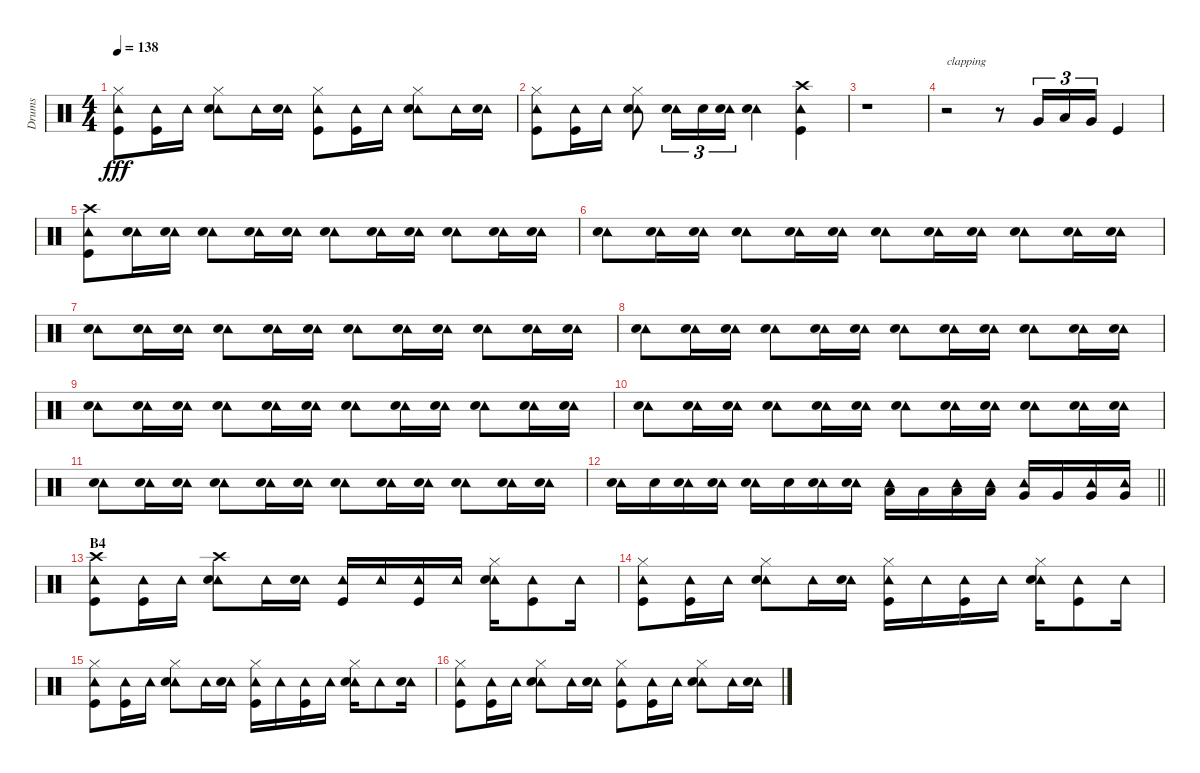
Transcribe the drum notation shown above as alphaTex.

\track ("Drums" "Drums") {instrument percussion}
\staff {score}
\articulation defaults
\ts (4 4)
\tempo 138
\clef neutral
\ks c
("Hi-Hat (closed)" "Tambourine (hit)" "Kick (hit)").8{dy fff} ("Tambourine (hit)" "Kick (hit)").16 "Tambourine (hit)".16 ("Hi-Hat (closed)" "Tambourine (hit)" "Snare (hit) 2").8 "Tambourine (hit)".16 ("Tambourine (hit)" "Snare (hit) 2").16 ("Hi-Hat (closed)" "Tambourine (hit)" "Kick (hit)").8 ("Tambourine (hit)" "Kick (hit)").16 "Tambourine (hit)".16 ("Hi-Hat (closed)" "Tambourine (hit)" "Snare (hit) 2").8 "Tambourine (hit)".16 ("Tambourine (hit)" "Snare (hit) 2").16 |
("Hi-Hat (closed)" "Tambourine (hit)" "Kick (hit)").8 ("Tambourine (hit)" "Kick (hit)").16 "Tambourine (hit)".16 ("Hi-Hat (closed)" "Tambourine (hit)" "Snare (hit) 2").8 ("Tambourine (hit)" "Snare (hit) 2").16{tu (3 2)} "Snare (hit) 2".16{tu (3 2)} ("Tambourine (hit)" "Snare (hit) 2").16{tu (3 2)} ("Tambourine (hit)" "Snare (hit) 2").4 ("Crash high (hit)" "Tambourine (hit)" "Kick (hit)").4 |
r.1 |
r.2{txt "clapping"} r.8 "Very Low Tom (hit)".16{tu (3 2)} "Low Tom (hit)".16{tu (3 2)} "Very Low Tom (hit)".16{tu (3 2)} "Kick (hit)".4 |
("Crash high (hit)" "Tambourine (hit)" "Kick (hit)").8 ("Tambourine (hit)" "Snare (hit) 2").16 ("Tambourine (hit)" "Snare (hit) 2").16 ("Tambourine (hit)" "Snare (hit) 2").8 ("Tambourine (hit)" "Snare (hit) 2").16 ("Tambourine (hit)" "Snare (hit) 2").16 ("Tambourine (hit)" "Snare (hit) 2").8 ("Tambourine (hit)" "Snare (hit) 2").16 ("Tambourine (hit)" "Snare (hit) 2").16 ("Tambourine (hit)" "Snare (hit) 2").8 ("Tambourine (hit)" "Snare (hit) 2").16 ("Tambourine (hit)" "Snare (hit) 2").16 |
("Tambourine (hit)" "Snare (hit) 2").8 ("Tambourine (hit)" "Snare (hit) 2").16 ("Tambourine (hit)" "Snare (hit) 2").16 ("Tambourine (hit)" "Snare (hit) 2").8 ("Tambourine (hit)" "Snare (hit) 2").16 ("Tambourine (hit)" "Snare (hit) 2").16 ("Tambourine (hit)" "Snare (hit) 2").8 ("Tambourine (hit)" "Snare (hit) 2").16 ("Tambourine (hit)" "Snare (hit) 2").16 ("Tambourine (hit)" "Snare (hit) 2").8 ("Tambourine (hit)" "Snare (hit) 2").16 ("Tambourine (hit)" "Snare (hit) 2").16 |
("Tambourine (hit)" "Snare (hit) 2").8 ("Tambourine (hit)" "Snare (hit) 2").16 ("Tambourine (hit)" "Snare (hit) 2").16 ("Tambourine (hit)" "Snare (hit) 2").8 ("Tambourine (hit)" "Snare (hit) 2").16 ("Tambourine (hit)" "Snare (hit) 2").16 ("Tambourine (hit)" "Snare (hit) 2").8 ("Tambourine (hit)" "Snare (hit) 2").16 ("Tambourine (hit)" "Snare (hit) 2").16 ("Tambourine (hit)" "Snare (hit) 2").8 ("Tambourine (hit)" "Snare (hit) 2").16 ("Tambourine (hit)" "Snare (hit) 2").16 |
("Tambourine (hit)" "Snare (hit) 2").8 ("Tambourine (hit)" "Snare (hit) 2").16 ("Tambourine (hit)" "Snare (hit) 2").16 ("Tambourine (hit)" "Snare (hit) 2").8 ("Tambourine (hit)" "Snare (hit) 2").16 ("Tambourine (hit)" "Snare (hit) 2").16 ("Tambourine (hit)" "Snare (hit) 2").8 ("Tambourine (hit)" "Snare (hit) 2").16 ("Tambourine (hit)" "Snare (hit) 2").16 ("Tambourine (hit)" "Snare (hit) 2").8 ("Tambourine (hit)" "Snare (hit) 2").16 ("Tambourine (hit)" "Snare (hit) 2").16 |
("Tambourine (hit)" "Snare (hit) 2").8 ("Tambourine (hit)" "Snare (hit) 2").16 ("Tambourine (hit)" "Snare (hit) 2").16 ("Tambourine (hit)" "Snare (hit) 2").8 ("Tambourine (hit)" "Snare (hit) 2").16 ("Tambourine (hit)" "Snare (hit) 2").16 ("Tambourine (hit)" "Snare (hit) 2").8 ("Tambourine (hit)" "Snare (hit) 2").16 ("Tambourine (hit)" "Snare (hit) 2").16 ("Tambourine (hit)" "Snare (hit) 2").8 ("Tambourine (hit)" "Snare (hit) 2").16 ("Tambourine (hit)" "Snare (hit) 2").16 |
("Tambourine (hit)" "Snare (hit) 2").8 ("Tambourine (hit)" "Snare (hit) 2").16 ("Tambourine (hit)" "Snare (hit) 2").16 ("Tambourine (hit)" "Snare (hit) 2").8 ("Tambourine (hit)" "Snare (hit) 2").16 ("Tambourine (hit)" "Snare (hit) 2").16 ("Tambourine (hit)" "Snare (hit) 2").8 ("Tambourine (hit)" "Snare (hit) 2").16 ("Tambourine (hit)" "Snare (hit) 2").16 ("Tambourine (hit)" "Snare (hit) 2").8 ("Tambourine (hit)" "Snare (hit) 2").16 ("Tambourine (hit)" "Snare (hit) 2").16 |
("Tambourine (hit)" "Snare (hit) 2").8 ("Tambourine (hit)" "Snare (hit) 2").16 ("Tambourine (hit)" "Snare (hit) 2").16 ("Tambourine (hit)" "Snare (hit) 2").8 ("Tambourine (hit)" "Snare (hit) 2").16 ("Tambourine (hit)" "Snare (hit) 2").16 ("Tambourine (hit)" "Snare (hit) 2").8 ("Tambourine (hit)" "Snare (hit) 2").16 ("Tambourine (hit)" "Snare (hit) 2").16 ("Tambourine (hit)" "Snare (hit) 2").8 ("Tambourine (hit)" "Snare (hit) 2").16 ("Tambourine (hit)" "Snare (hit) 2").16 |
\barLineRight lightlight
("Tambourine (hit)" "Snare (hit) 2").16 "Snare (hit) 2".16 ("Tambourine (hit)" "Snare (hit) 2").16 ("Tambourine (hit)" "Snare (hit) 2").16 ("Tambourine (hit)" "Snare (hit) 2").16 "Snare (hit) 2".16 ("Tambourine (hit)" "Snare (hit) 2").16 ("Tambourine (hit)" "Snare (hit) 2").16 ("Tambourine (hit)" "Low Tom (hit)").16 "Low Tom (hit)".16 ("Tambourine (hit)" "Low Tom (hit)").16 ("Tambourine (hit)" "Low Tom (hit)").16 ("Tambourine (hit)" "Very Low Tom (hit)").16 "Very Low Tom (hit)".16 ("Tambourine (hit)" "Very Low Tom (hit)").16 ("Tambourine (hit)" "Very Low Tom (hit)").16 |
\section ("" "B4")
("Crash high (hit)" "Tambourine (hit)" "Kick (hit)").8 ("Tambourine (hit)" "Kick (hit)").16 "Tambourine (hit)".16 ("Crash high (hit)" "Tambourine (hit)" "Snare (hit) 2").8 "Tambourine (hit)".16 ("Tambourine (hit)" "Snare (hit) 2").16 ("Tambourine (hit)" "Kick (hit)").16 "Tambourine (hit)".16 ("Tambourine (hit)" "Kick (hit)").16 "Tambourine (hit)".16 ("Hi-Hat (closed)" "Tambourine (hit)" "Snare (hit) 2").16 ("Tambourine (hit)" "Kick (hit)").8 "Tambourine (hit)".16 |
("Hi-Hat (closed)" "Tambourine (hit)" "Kick (hit)").8 ("Tambourine (hit)" "Kick (hit)").16 "Tambourine (hit)".16 ("Hi-Hat (closed)" "Tambourine (hit)" "Snare (hit) 2").8 "Tambourine (hit)".16 ("Tambourine (hit)" "Snare (hit) 2").16 ("Hi-Hat (closed)" "Tambourine (hit)" "Kick (hit)").16 "Tambourine (hit)".16 ("Tambourine (hit)" "Kick (hit)").16 "Tambourine (hit)".16 ("Hi-Hat (closed)" "Tambourine (hit)" "Snare (hit) 2").16 ("Tambourine (hit)" "Kick (hit)").8 "Tambourine (hit)".16 |
("Hi-Hat (closed)" "Tambourine (hit)" "Kick (hit)").8 ("Tambourine (hit)" "Kick (hit)").16 "Tambourine (hit)".16 ("Hi-Hat (closed)" "Tambourine (hit)" "Snare (hit) 2").8 "Tambourine (hit)".16 ("Tambourine (hit)" "Snare (hit) 2").16 ("Hi-Hat (closed)" "Tambourine (hit)" "Kick (hit)").16 "Tambourine (hit)".16 ("Tambourine (hit)" "Kick (hit)").16 "Tambourine (hit)".16 ("Hi-Hat (closed)" "Tambourine (hit)" "Snare (hit) 2").16 "Tambourine (hit)".8 ("Tambourine (hit)" "Snare (hit) 2").16 |
("Hi-Hat (closed)" "Tambourine (hit)" "Kick (hit)").8 ("Tambourine (hit)" "Kick (hit)").16 "Tambourine (hit)".16 ("Hi-Hat (closed)" "Tambourine (hit)" "Snare (hit) 2").8 "Tambourine (hit)".16 ("Tambourine (hit)" "Snare (hit) 2").16 ("Hi-Hat (closed)" "Tambourine (hit)" "Kick (hit)").8 ("Tambourine (hit)" "Kick (hit)").16 "Tambourine (hit)".16 ("Hi-Hat (closed)" "Tambourine (hit)" "Snare (hit) 2").8 "Tambourine (hit)".16 ("Tambourine (hit)" "Snare (hit) 2").16
